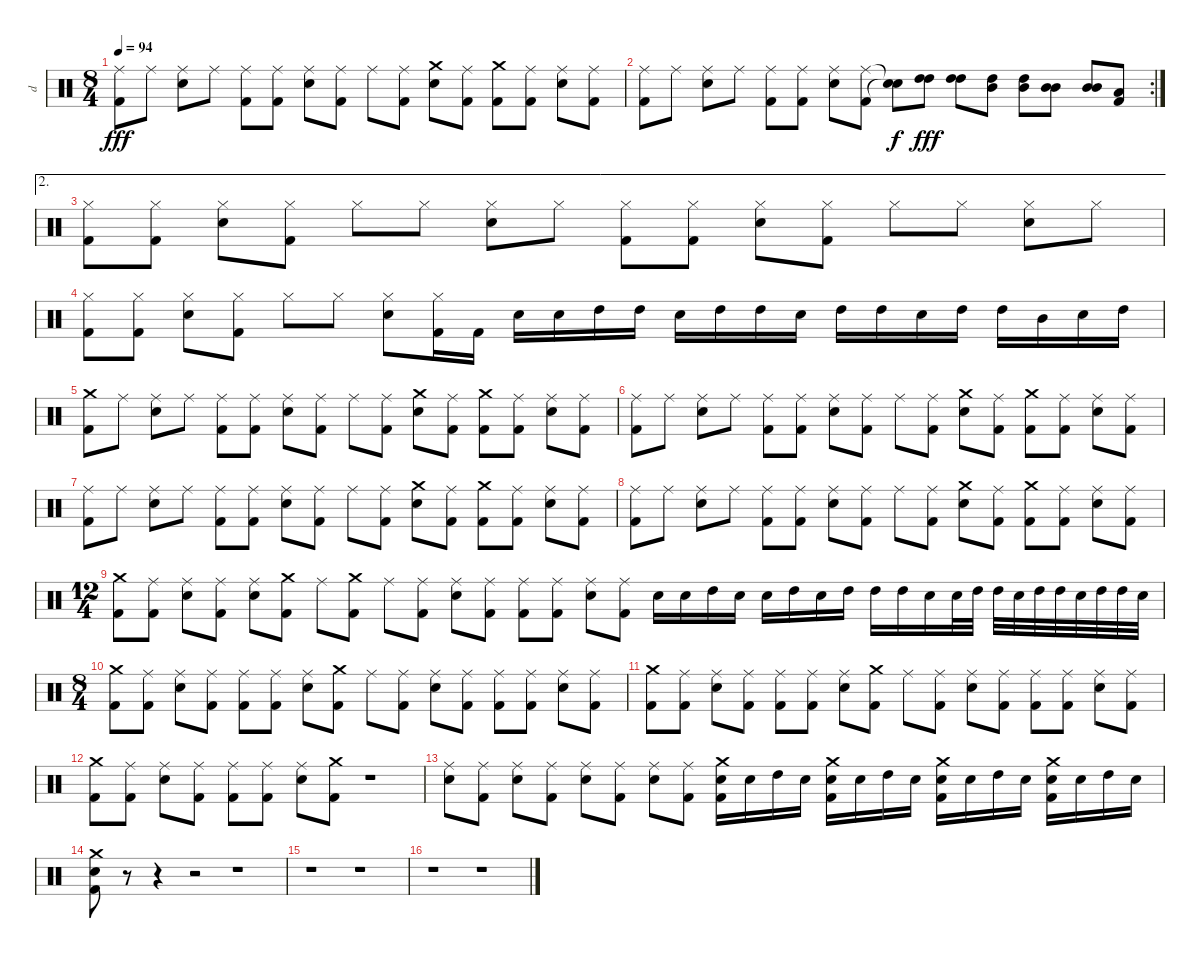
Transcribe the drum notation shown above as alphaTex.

\track ("d" "d") {instrument percussion}
\staff {score}
\articulation defaults
\ts (8 4)
\tempo 94
\clef neutral
\ks c
("Ride (middle)" "Kick (hit) 2").8{dy fff} "Ride (middle)".8 ("Ride (middle)" "Snare (hit) 2").8 "Ride (middle)".8 ("Ride (middle)" "Kick (hit) 2").8 ("Ride (middle)" "Kick (hit) 2").8 ("Ride (middle)" "Snare (hit) 2").8 ("Ride (middle)" "Kick (hit) 2").8 "Ride (middle)".8 ("Ride (middle)" "Kick (hit) 2").8 ("Crash medium (hit)" "Snare (hit) 2").8 ("Ride (middle)" "Kick (hit) 2").8 ("Crash medium (hit)" "Kick (hit) 2").8 ("Ride (middle)" "Kick (hit) 2").8 ("Ride (middle)" "Snare (hit) 2").8 ("Ride (middle)" "Kick (hit) 2").8 |
\rc 2
("Ride (middle)" "Kick (hit) 2").8 "Ride (middle)".8 ("Ride (middle)" "Snare (hit) 2").8 "Ride (middle)".8 ("Ride (middle)" "Kick (hit) 2").8 ("Ride (middle)" "Kick (hit) 2").8 ("Ride (middle)" "Snare (hit) 2").8 ("Ride (middle)" "Kick (hit) 2").8 ("Snare (hit)"{t} "Snare (hit)"{t}).8{dy f} ("High Tom (hit)" "High Tom (hit)").8{dy fff} ("High Tom (hit)" "High Tom (hit)").8 ("High Tom (hit)" "Mid Tom (hit)").8 ("High Tom (hit)" "Mid Tom (hit)").8 ("Mid Tom (hit)" "Mid Tom (hit)").8 ("Mid Tom (hit)" "Mid Tom (hit)").8 ("Low Tom (hit)" "Kick (hit) 2").8 |
\ae 2
("Hi-Hat (closed)" "Kick (hit) 2").8 ("Hi-Hat (closed)" "Kick (hit) 2").8 ("Hi-Hat (closed)" "Snare (hit) 2").8 ("Hi-Hat (closed)" "Kick (hit) 2").8 "Hi-Hat (closed)".8 "Hi-Hat (closed)".8 ("Hi-Hat (closed)" "Snare (hit) 2").8 "Hi-Hat (closed)".8 ("Hi-Hat (closed)" "Kick (hit) 2").8 ("Hi-Hat (closed)" "Kick (hit) 2").8 ("Hi-Hat (closed)" "Snare (hit) 2").8 ("Hi-Hat (closed)" "Kick (hit) 2").8 "Hi-Hat (closed)".8 "Hi-Hat (closed)".8 ("Hi-Hat (closed)" "Snare (hit) 2").8 "Hi-Hat (closed)".8 |
("Hi-Hat (closed)" "Kick (hit) 2").8 ("Hi-Hat (closed)" "Kick (hit) 2").8 ("Hi-Hat (closed)" "Snare (hit) 2").8 ("Hi-Hat (closed)" "Kick (hit) 2").8 "Hi-Hat (closed)".8 "Hi-Hat (closed)".8 ("Hi-Hat (closed)" "Snare (hit) 2").8 ("Hi-Hat (closed)" "Kick (hit) 2").16 "Kick (hit) 2".16 "Snare (hit) 2".16 "Snare (hit) 2".16 "High Tom (hit)".16 "High Tom (hit)".16 "Snare (hit) 2".16 "High Tom (hit)".16 "High Tom (hit)".16 "Snare (hit) 2".16 "High Tom (hit)".16 "High Tom (hit)".16 "Snare (hit) 2".16 "High Tom (hit)".16 "High Tom (hit)".16 "Mid Tom (hit)".16 "Snare (hit) 2".16 "High Tom (hit)".16 |
("Crash medium (hit)" "Kick (hit) 2").8 "Ride (middle)".8 ("Ride (middle)" "Snare (hit) 2").8 "Ride (middle)".8 ("Ride (middle)" "Kick (hit) 2").8 ("Ride (middle)" "Kick (hit) 2").8 ("Ride (middle)" "Snare (hit) 2").8 ("Ride (middle)" "Kick (hit) 2").8 "Ride (middle)".8 ("Ride (middle)" "Kick (hit) 2").8 ("Crash medium (hit)" "Snare (hit) 2").8 ("Ride (middle)" "Kick (hit) 2").8 ("Crash medium (hit)" "Kick (hit) 2").8 ("Ride (middle)" "Kick (hit) 2").8 ("Ride (middle)" "Snare (hit) 2").8 ("Ride (middle)" "Kick (hit) 2").8 |
("Ride (middle)" "Kick (hit) 2").8 "Ride (middle)".8 ("Ride (middle)" "Snare (hit) 2").8 "Ride (middle)".8 ("Ride (middle)" "Kick (hit) 2").8 ("Ride (middle)" "Kick (hit) 2").8 ("Ride (middle)" "Snare (hit) 2").8 ("Ride (middle)" "Kick (hit) 2").8 "Ride (middle)".8 ("Ride (middle)" "Kick (hit) 2").8 ("Crash medium (hit)" "Snare (hit) 2").8 ("Ride (middle)" "Kick (hit) 2").8 ("Crash medium (hit)" "Kick (hit) 2").8 ("Ride (middle)" "Kick (hit) 2").8 ("Ride (middle)" "Snare (hit) 2").8 ("Ride (middle)" "Kick (hit) 2").8 |
("Ride (middle)" "Kick (hit) 2").8 "Ride (middle)".8 ("Ride (middle)" "Snare (hit) 2").8 "Ride (middle)".8 ("Ride (middle)" "Kick (hit) 2").8 ("Ride (middle)" "Kick (hit) 2").8 ("Ride (middle)" "Snare (hit) 2").8 ("Ride (middle)" "Kick (hit) 2").8 "Ride (middle)".8 ("Ride (middle)" "Kick (hit) 2").8 ("Crash medium (hit)" "Snare (hit) 2").8 ("Ride (middle)" "Kick (hit) 2").8 ("Crash medium (hit)" "Kick (hit) 2").8 ("Ride (middle)" "Kick (hit) 2").8 ("Ride (middle)" "Snare (hit) 2").8 ("Ride (middle)" "Kick (hit) 2").8 |
("Ride (middle)" "Kick (hit) 2").8 "Ride (middle)".8 ("Ride (middle)" "Snare (hit) 2").8 "Ride (middle)".8 ("Ride (middle)" "Kick (hit) 2").8 ("Ride (middle)" "Kick (hit) 2").8 ("Ride (middle)" "Snare (hit) 2").8 ("Ride (middle)" "Kick (hit) 2").8 "Ride (middle)".8 ("Ride (middle)" "Kick (hit) 2").8 ("Crash medium (hit)" "Snare (hit) 2").8 ("Ride (middle)" "Kick (hit) 2").8 ("Crash medium (hit)" "Kick (hit) 2").8 ("Ride (middle)" "Kick (hit) 2").8 ("Ride (middle)" "Snare (hit) 2").8 ("Ride (middle)" "Kick (hit) 2").8 |
\ts (12 4)
("Crash medium (hit)" "Kick (hit) 2").8 ("Ride (middle)" "Kick (hit) 2").8 ("Ride (middle)" "Snare (hit) 2").8 ("Ride (middle)" "Kick (hit) 2").8 ("Ride (middle)" "Snare (hit) 2").8 ("Crash medium (hit)" "Kick (hit) 2").8 "Ride (middle)".8 ("Crash medium (hit)" "Kick (hit) 2").8 "Ride (middle)".8 ("Ride (middle)" "Kick (hit) 2").8 ("Ride (middle)" "Snare (hit) 2").8 ("Ride (middle)" "Kick (hit) 2").8 ("Ride (middle)" "Kick (hit) 2").8 ("Ride (middle)" "Kick (hit) 2").8 ("Ride (middle)" "Snare (hit) 2").8 ("Ride (middle)" "Kick (hit) 2").8 "Snare (hit) 2".16 "Snare (hit) 2".16 "High Tom (hit)".16 "Snare (hit) 2".16 "Snare (hit) 2".16 "High Tom (hit)".16 "Snare (hit) 2".16 "High Tom (hit)".16 "High Tom (hit)".16 "High Tom (hit)".16 "Snare (hit) 2".16 "Snare (hit) 2".32 "High Tom (hit)".32 "High Tom (hit)".32 "Snare (hit) 2".32 "High Tom (hit)".32 "High Tom (hit)".32 "Snare (hit) 2".32 "High Tom (hit)".32 "High Tom (hit)".32 "Snare (hit) 2".32 |
\ts (8 4)
("Crash medium (hit)" "Kick (hit) 2").8 ("Ride (middle)" "Kick (hit) 2").8 ("Ride (middle)" "Snare (hit) 2").8 ("Ride (middle)" "Kick (hit) 2").8 ("Ride (middle)" "Kick (hit) 2").8 ("Ride (middle)" "Kick (hit) 2").8 ("Ride (middle)" "Snare (hit) 2").8 ("Crash medium (hit)" "Kick (hit) 2").8 "Ride (middle)".8 ("Ride (middle)" "Kick (hit) 2").8 ("Ride (middle)" "Snare (hit) 2").8 ("Ride (middle)" "Kick (hit) 2").8 ("Ride (middle)" "Kick (hit) 2").8 ("Ride (middle)" "Kick (hit) 2").8 ("Ride (middle)" "Snare (hit) 2").8 ("Ride (middle)" "Kick (hit) 2").8 |
("Crash medium (hit)" "Kick (hit) 2").8 ("Ride (middle)" "Kick (hit) 2").8 ("Ride (middle)" "Snare (hit) 2").8 ("Ride (middle)" "Kick (hit) 2").8 ("Ride (middle)" "Kick (hit) 2").8 ("Ride (middle)" "Kick (hit) 2").8 ("Ride (middle)" "Snare (hit) 2").8 ("Crash medium (hit)" "Kick (hit) 2").8 "Ride (middle)".8 ("Ride (middle)" "Kick (hit) 2").8 ("Ride (middle)" "Snare (hit) 2").8 ("Ride (middle)" "Kick (hit) 2").8 ("Ride (middle)" "Kick (hit) 2").8 ("Ride (middle)" "Kick (hit) 2").8 ("Ride (middle)" "Snare (hit) 2").8 ("Ride (middle)" "Kick (hit) 2").8 |
("Crash medium (hit)" "Kick (hit) 2").8 ("Ride (middle)" "Kick (hit) 2").8 ("Ride (middle)" "Snare (hit) 2").8 ("Ride (middle)" "Kick (hit) 2").8 ("Ride (middle)" "Kick (hit) 2").8 ("Ride (middle)" "Kick (hit) 2").8 ("Ride (middle)" "Snare (hit) 2").8 ("Crash medium (hit)" "Kick (hit) 2").8 r.1 |
("Ride (middle)" "Snare (hit) 2").8 ("Ride (middle)" "Kick (hit) 2").8 ("Ride (middle)" "Snare (hit) 2").8 ("Ride (middle)" "Kick (hit) 2").8 ("Ride (middle)" "Snare (hit) 2").8 ("Ride (middle)" "Kick (hit) 2").8 ("Ride (middle)" "Snare (hit) 2").8 ("Ride (middle)" "Kick (hit) 2").8 ("Crash medium (hit)" "Snare (hit) 2" "Kick (hit) 2").16 "Snare (hit) 2".16 "High Tom (hit)".16 "Snare (hit) 2".16 ("Crash medium (hit)" "Snare (hit) 2" "Kick (hit) 2").16 "Snare (hit) 2".16 "High Tom (hit)".16 "Snare (hit) 2".16 ("Crash medium (hit)" "Snare (hit) 2" "Kick (hit) 2").16 "Snare (hit) 2".16 "High Tom (hit)".16 "Snare (hit) 2".16 ("Crash medium (hit)" "Snare (hit) 2" "Kick (hit) 2").16 "Snare (hit) 2".16 "High Tom (hit)".16 "Snare (hit) 2".16 |
("Crash medium (hit)" "Snare (hit) 2" "Kick (hit) 2").8 r.8 r.4 r.2 r.1 |
r.1 r.1 |
r.1 r.1
